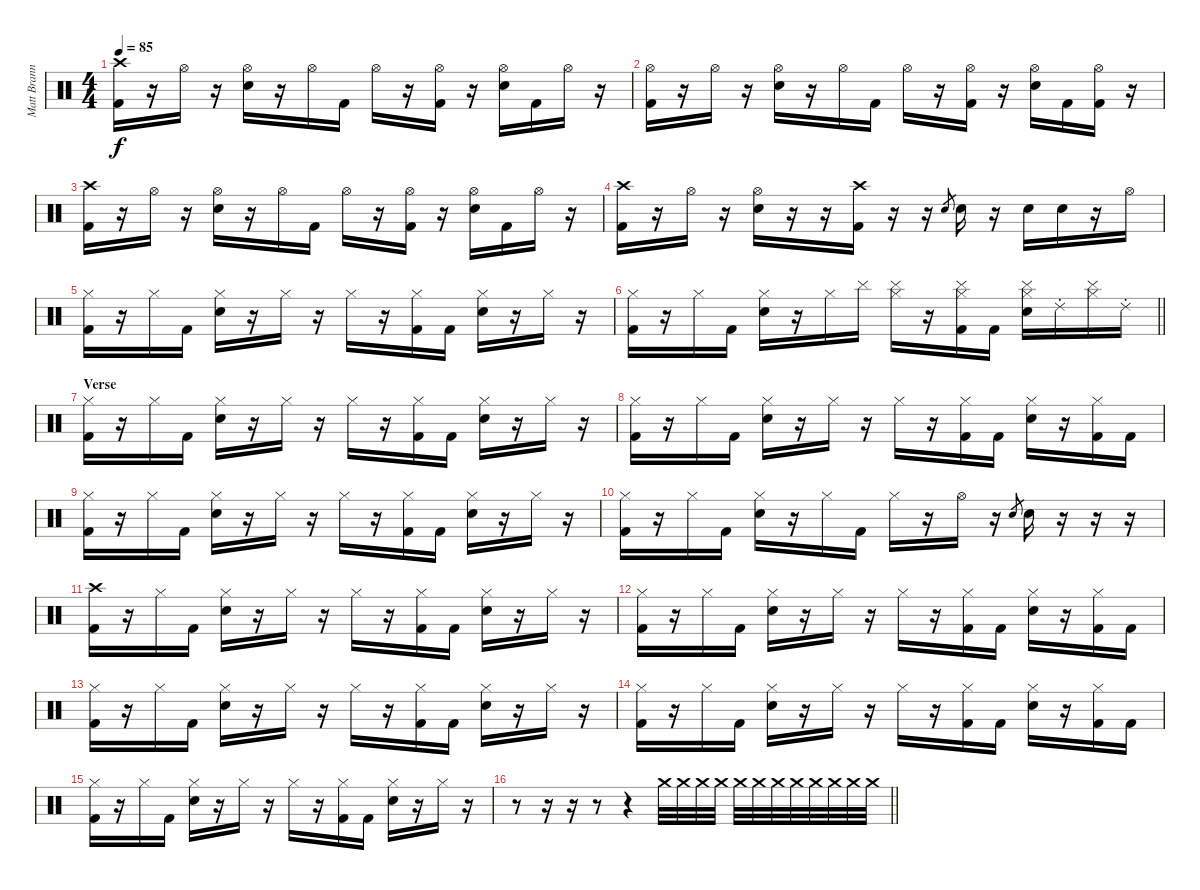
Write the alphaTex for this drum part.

\track ("Matt Brann" "Matt Brann") {instrument percussion}
\staff {score}
\articulation defaults
\ts (4 4)
\tempo 85
\clef neutral
\ks c
("Crash high (hit)" "Kick (hit) 2").16{dy f} r.16 "Hi-Hat (open)".16 r.16 ("Hi-Hat (open)" "Electric Snare (hit)").16 r.16 "Hi-Hat (open)".16 "Kick (hit) 2".16 "Hi-Hat (open)".16 r.16 ("Hi-Hat (open)" "Kick (hit) 2").16 r.16 ("Hi-Hat (open)" "Electric Snare (hit)").16 "Kick (hit) 2".16 "Hi-Hat (open)".16 r.16 |
("Hi-Hat (open)" "Kick (hit) 2").16 r.16 "Hi-Hat (open)".16 r.16 ("Hi-Hat (open)" "Electric Snare (hit)").16 r.16 "Hi-Hat (open)".16 "Kick (hit) 2".16 "Hi-Hat (open)".16 r.16 ("Hi-Hat (open)" "Kick (hit) 2").16 r.16 ("Hi-Hat (open)" "Electric Snare (hit)").16 "Kick (hit) 2".16 ("Hi-Hat (open)" "Kick (hit) 2").16 r.16 |
("Crash high (hit)" "Kick (hit) 2").16 r.16 "Hi-Hat (open)".16 r.16 ("Hi-Hat (open)" "Electric Snare (hit)").16 r.16 "Hi-Hat (open)".16 "Kick (hit) 2".16 "Hi-Hat (open)".16 r.16 ("Hi-Hat (open)" "Kick (hit) 2").16 r.16 ("Hi-Hat (open)" "Electric Snare (hit)").16 "Kick (hit) 2".16 "Hi-Hat (open)".16 r.16 |
("Crash high (hit)" "Kick (hit) 2").16 r.16 "Hi-Hat (open)".16 r.16 ("Hi-Hat (open)" "Electric Snare (hit)").16 r.16 r.16 ("Crash high (hit)" "Kick (hit) 2").16 r.16 r.16 "Electric Snare (hit)".8{gr} "Electric Snare (hit)".16 r.16 "Electric Snare (hit)".16 "Electric Snare (hit)".16 r.16 "Hi-Hat (open)".16 |
("Hi-Hat (closed)" "Kick (hit) 2").16 r.16 "Hi-Hat (closed)".16 "Kick (hit) 2".16 ("Hi-Hat (closed)" "Snare (hit) 2").16 r.16 "Hi-Hat (closed)".16 r.16 "Hi-Hat (closed)".16 r.16 ("Hi-Hat (closed)" "Kick (hit) 2").16 "Kick (hit) 2".16 ("Hi-Hat (closed)" "Snare (hit) 2").16 r.16 "Hi-Hat (closed)".16 r.16 |
\barLineRight lightlight
("Hi-Hat (closed)" "Kick (hit) 2").16 r.16 "Hi-Hat (closed)".16 "Kick (hit) 2".16 ("Hi-Hat (closed)" "Snare (hit) 2").16 r.16 "Hi-Hat (closed)".16 "Cymbal (hit)".16 ("Hi-Hat (closed)" "Cymbal (hit)").16 r.16 ("Hi-Hat (closed)" "Cymbal (hit)" "Kick (hit) 2").16 "Kick (hit) 2".16 ("Hi-Hat (closed)" "Cymbal (hit)" "Snare (hit) 2").16 "Ride (choke) 2".16 ("Hi-Hat (closed)" "Cymbal (hit)").16 "Ride (choke) 2".16 |
\section ("" "Verse")
("Hi-Hat (closed)" "Kick (hit) 2").16 r.16 "Hi-Hat (closed)".16 "Kick (hit) 2".16 ("Hi-Hat (closed)" "Snare (hit) 2").16 r.16 "Hi-Hat (closed)".16 r.16 "Hi-Hat (closed)".16 r.16 ("Hi-Hat (closed)" "Kick (hit) 2").16 "Kick (hit) 2".16 ("Hi-Hat (closed)" "Snare (hit) 2").16 r.16 "Hi-Hat (closed)".16 r.16 |
("Hi-Hat (closed)" "Kick (hit) 2").16 r.16 "Hi-Hat (closed)".16 "Kick (hit) 2".16 ("Hi-Hat (closed)" "Snare (hit) 2").16 r.16 "Hi-Hat (closed)".16 r.16 "Hi-Hat (closed)".16 r.16 ("Hi-Hat (closed)" "Kick (hit) 2").16 "Kick (hit) 2".16 ("Hi-Hat (closed)" "Snare (hit) 2").16 r.16 ("Hi-Hat (closed)" "Kick (hit) 2").16 "Kick (hit) 2".16 |
("Hi-Hat (closed)" "Kick (hit) 2").16 r.16 "Hi-Hat (closed)".16 "Kick (hit) 2".16 ("Hi-Hat (closed)" "Snare (hit) 2").16 r.16 "Hi-Hat (closed)".16 r.16 "Hi-Hat (closed)".16 r.16 ("Hi-Hat (closed)" "Kick (hit) 2").16 "Kick (hit) 2".16 ("Hi-Hat (closed)" "Snare (hit) 2").16 r.16 "Hi-Hat (closed)".16 r.16 |
("Hi-Hat (closed)" "Kick (hit) 2").16 r.16 "Hi-Hat (closed)".16 "Kick (hit) 2".16 ("Hi-Hat (closed)" "Snare (hit) 2").16 r.16 "Hi-Hat (closed)".16 "Kick (hit) 2".16 "Hi-Hat (closed)".16 r.16 "Hi-Hat (open)".16 r.16 "Electric Snare (hit)".8{gr} "Electric Snare (hit)".16 r.16 r.16 r.16 |
("Crash high (hit)" "Kick (hit) 2").16 r.16 "Hi-Hat (closed)".16 "Kick (hit) 2".16 ("Hi-Hat (closed)" "Snare (hit) 2").16 r.16 "Hi-Hat (closed)".16 r.16 "Hi-Hat (closed)".16 r.16 ("Hi-Hat (closed)" "Kick (hit) 2").16 "Kick (hit) 2".16 ("Hi-Hat (closed)" "Snare (hit) 2").16 r.16 "Hi-Hat (closed)".16 r.16 |
("Hi-Hat (closed)" "Kick (hit) 2").16 r.16 "Hi-Hat (closed)".16 "Kick (hit) 2".16 ("Hi-Hat (closed)" "Snare (hit) 2").16 r.16 "Hi-Hat (closed)".16 r.16 "Hi-Hat (closed)".16 r.16 ("Hi-Hat (closed)" "Kick (hit) 2").16 "Kick (hit) 2".16 ("Hi-Hat (closed)" "Snare (hit) 2").16 r.16 ("Hi-Hat (closed)" "Kick (hit) 2").16 "Kick (hit) 2".16 |
("Hi-Hat (closed)" "Kick (hit) 2").16 r.16 "Hi-Hat (closed)".16 "Kick (hit) 2".16 ("Hi-Hat (closed)" "Snare (hit) 2").16 r.16 "Hi-Hat (closed)".16 r.16 "Hi-Hat (closed)".16 r.16 ("Hi-Hat (closed)" "Kick (hit) 2").16 "Kick (hit) 2".16 ("Hi-Hat (closed)" "Snare (hit) 2").16 r.16 "Hi-Hat (closed)".16 r.16 |
("Hi-Hat (closed)" "Kick (hit) 2").16 r.16 "Hi-Hat (closed)".16 "Kick (hit) 2".16 ("Hi-Hat (closed)" "Snare (hit) 2").16 r.16 "Hi-Hat (closed)".16 r.16 "Hi-Hat (closed)".16 r.16 ("Hi-Hat (closed)" "Kick (hit) 2").16 "Kick (hit) 2".16 ("Hi-Hat (closed)" "Snare (hit) 2").16 r.16 ("Hi-Hat (closed)" "Kick (hit) 2").16 "Kick (hit) 2".16 |
("Hi-Hat (closed)" "Kick (hit) 2").16 r.16 "Hi-Hat (closed)".16 "Kick (hit) 2".16 ("Hi-Hat (closed)" "Snare (hit) 2").16 r.16 "Hi-Hat (closed)".16 r.16 "Hi-Hat (closed)".16 r.16 ("Hi-Hat (closed)" "Kick (hit) 2").16 "Kick (hit) 2".16 ("Hi-Hat (closed)" "Snare (hit) 2").16 r.16 "Hi-Hat (closed)".16 r.16 |
\barLineRight lightlight
r.8 r.16 r.16 r.8 r.4 "Crash medium (hit)".32{volume 4} "Crash medium (hit)".32 "Crash medium (hit)".32 "Crash medium (hit)".32{volume 6} "Crash medium (hit)".32 "Crash medium (hit)".32 "Crash medium (hit)".32 "Crash medium (hit)".32{volume 8} "Crash medium (hit)".32 "Crash medium (hit)".32 "Crash medium (hit)".32 "Crash medium (hit)".32{volume 10}
